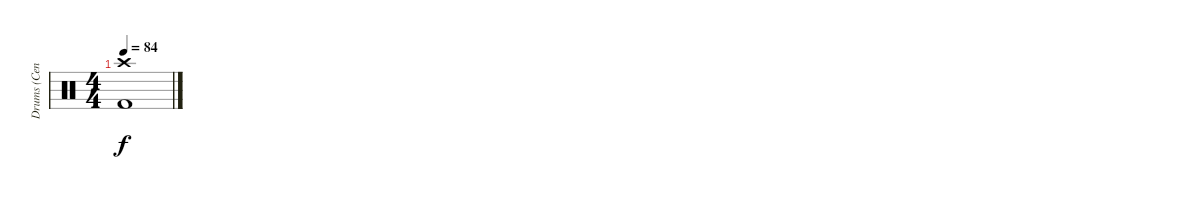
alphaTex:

\track ("Drums (Cenk)" "Drums (Cen") {instrument percussion}
\staff {score}
\articulation defaults
\ts (4 4)
\tempo 84
\clef neutral
\ks c
("Crash high (hit)" "Kick (hit) 2").1{dy f}
